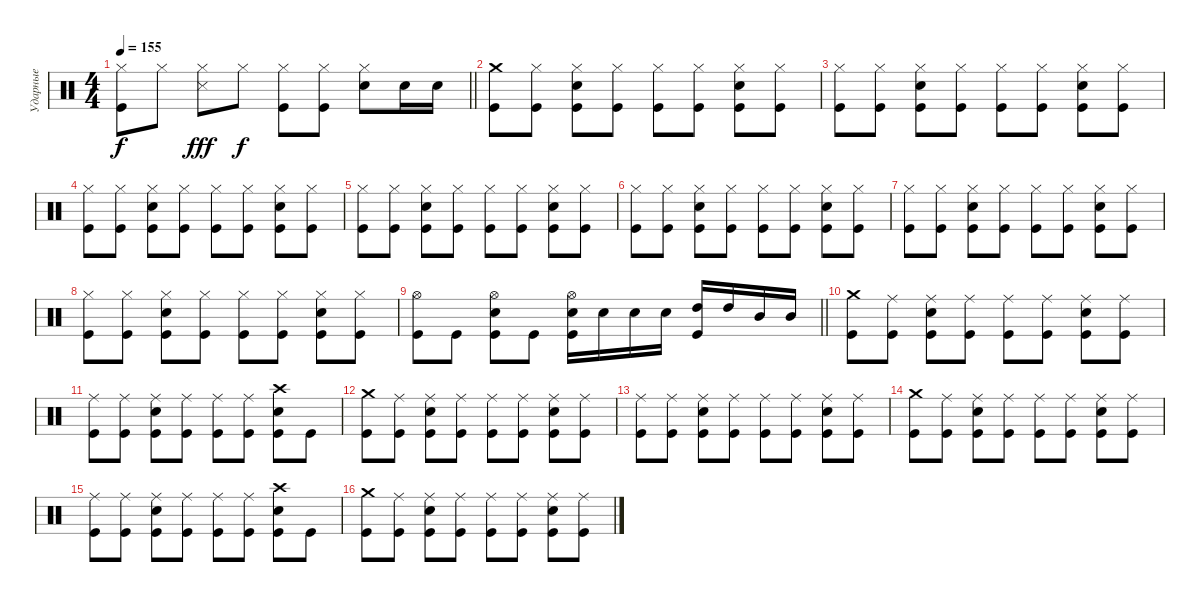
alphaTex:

\track ("Ударные" "Ударные") {instrument percussion}
\staff {score}
\articulation defaults
\ts (4 4)
\tempo 155
\clef neutral
\barLineRight lightlight
\ks c
("Hi-Hat (closed)" "Kick (hit)").8{dy f} "Hi-Hat (closed)".8 ("Hi-Hat (closed)" "Snare (side stick) 3").8{dy fff} "Hi-Hat (closed)".8{dy f} ("Hi-Hat (closed)" "Kick (hit)").8 ("Hi-Hat (closed)" "Kick (hit)").8 ("Hi-Hat (closed)" "Electric Snare (hit)").8 "Electric Snare (hit)".16 "Electric Snare (hit)".16 |
\section ("" " ")
("Crash medium (hit)" "Kick (hit)").8 ("Hi-Hat (closed)" "Kick (hit)").8 ("Hi-Hat (closed)" "Electric Snare (hit)" "Kick (hit)").8 ("Hi-Hat (closed)" "Kick (hit)").8 ("Hi-Hat (closed)" "Kick (hit)").8 ("Hi-Hat (closed)" "Kick (hit)").8 ("Hi-Hat (closed)" "Electric Snare (hit)" "Kick (hit)").8 ("Hi-Hat (closed)" "Kick (hit)").8 |
("Hi-Hat (closed)" "Kick (hit)").8 ("Hi-Hat (closed)" "Kick (hit)").8 ("Hi-Hat (closed)" "Electric Snare (hit)" "Kick (hit)").8 ("Hi-Hat (closed)" "Kick (hit)").8 ("Hi-Hat (closed)" "Kick (hit)").8 ("Hi-Hat (closed)" "Kick (hit)").8 ("Hi-Hat (closed)" "Electric Snare (hit)" "Kick (hit)").8 ("Hi-Hat (closed)" "Kick (hit)").8 |
("Hi-Hat (closed)" "Kick (hit)").8 ("Hi-Hat (closed)" "Kick (hit)").8 ("Hi-Hat (closed)" "Electric Snare (hit)" "Kick (hit)").8 ("Hi-Hat (closed)" "Kick (hit)").8 ("Hi-Hat (closed)" "Kick (hit)").8 ("Hi-Hat (closed)" "Kick (hit)").8 ("Hi-Hat (closed)" "Electric Snare (hit)" "Kick (hit)").8 ("Hi-Hat (closed)" "Kick (hit)").8 |
("Hi-Hat (closed)" "Kick (hit)").8 ("Hi-Hat (closed)" "Kick (hit)").8 ("Hi-Hat (closed)" "Electric Snare (hit)" "Kick (hit)").8 ("Hi-Hat (closed)" "Kick (hit)").8 ("Hi-Hat (closed)" "Kick (hit)").8 ("Hi-Hat (closed)" "Kick (hit)").8 ("Hi-Hat (closed)" "Electric Snare (hit)" "Kick (hit)").8 ("Hi-Hat (closed)" "Kick (hit)").8 |
("Hi-Hat (closed)" "Kick (hit)").8 ("Hi-Hat (closed)" "Kick (hit)").8 ("Hi-Hat (closed)" "Electric Snare (hit)" "Kick (hit)").8 ("Hi-Hat (closed)" "Kick (hit)").8 ("Hi-Hat (closed)" "Kick (hit)").8 ("Hi-Hat (closed)" "Kick (hit)").8 ("Hi-Hat (closed)" "Electric Snare (hit)" "Kick (hit)").8 ("Hi-Hat (closed)" "Kick (hit)").8 |
("Hi-Hat (closed)" "Kick (hit)").8 ("Hi-Hat (closed)" "Kick (hit)").8 ("Hi-Hat (closed)" "Electric Snare (hit)" "Kick (hit)").8 ("Hi-Hat (closed)" "Kick (hit)").8 ("Hi-Hat (closed)" "Kick (hit)").8 ("Hi-Hat (closed)" "Kick (hit)").8 ("Hi-Hat (closed)" "Electric Snare (hit)" "Kick (hit)").8 ("Hi-Hat (closed)" "Kick (hit)").8 |
("Hi-Hat (closed)" "Kick (hit)").8 ("Hi-Hat (closed)" "Kick (hit)").8 ("Hi-Hat (closed)" "Electric Snare (hit)" "Kick (hit)").8 ("Hi-Hat (closed)" "Kick (hit)").8 ("Hi-Hat (closed)" "Kick (hit)").8 ("Hi-Hat (closed)" "Kick (hit)").8 ("Hi-Hat (closed)" "Electric Snare (hit)" "Kick (hit)").8 ("Hi-Hat (closed)" "Kick (hit)").8 |
\barLineRight lightlight
("Hi-Hat (open)" "Kick (hit)").8 "Kick (hit)".8 ("Hi-Hat (open)" "Electric Snare (hit)" "Kick (hit)").8 "Kick (hit)".8 ("Hi-Hat (open)" "Electric Snare (hit)" "Kick (hit)").16 "Electric Snare (hit)".16 "Electric Snare (hit)".16 "Electric Snare (hit)".16 ("High Tom (hit)" "Kick (hit)").16 "High Tom (hit)".16 "Mid Tom (hit)".16 "Mid Tom (hit)".16 |
\section ("" " ")
("Crash medium (hit)" "Kick (hit)").8 ("Ride (middle)" "Kick (hit)").8 ("Ride (middle)" "Electric Snare (hit)" "Kick (hit)").8 ("Ride (middle)" "Kick (hit)").8 ("Ride (middle)" "Kick (hit)").8 ("Ride (middle)" "Kick (hit)").8 ("Ride (middle)" "Electric Snare (hit)" "Kick (hit)").8 ("Ride (middle)" "Kick (hit)").8 |
("Ride (middle)" "Kick (hit)").8 ("Ride (middle)" "Kick (hit)").8 ("Ride (middle)" "Electric Snare (hit)" "Kick (hit)").8 ("Ride (middle)" "Kick (hit)").8 ("Ride (middle)" "Kick (hit)").8 ("Ride (middle)" "Kick (hit)").8 ("Crash high (hit)" "Electric Snare (hit)" "Kick (hit)").8 "Kick (hit)".8 |
("Crash medium (hit)" "Kick (hit)").8 ("Ride (middle)" "Kick (hit)").8 ("Ride (middle)" "Electric Snare (hit)" "Kick (hit)").8 ("Ride (middle)" "Kick (hit)").8 ("Ride (middle)" "Kick (hit)").8 ("Ride (middle)" "Kick (hit)").8 ("Ride (middle)" "Electric Snare (hit)" "Kick (hit)").8 ("Ride (middle)" "Kick (hit)").8 |
("Ride (middle)" "Kick (hit)").8 ("Ride (middle)" "Kick (hit)").8 ("Ride (middle)" "Electric Snare (hit)" "Kick (hit)").8 ("Ride (middle)" "Kick (hit)").8 ("Ride (middle)" "Kick (hit)").8 ("Ride (middle)" "Kick (hit)").8 ("Ride (middle)" "Electric Snare (hit)" "Kick (hit)").8 ("Ride (middle)" "Kick (hit)").8 |
("Crash medium (hit)" "Kick (hit)").8 ("Ride (middle)" "Kick (hit)").8 ("Ride (middle)" "Electric Snare (hit)" "Kick (hit)").8 ("Ride (middle)" "Kick (hit)").8 ("Ride (middle)" "Kick (hit)").8 ("Ride (middle)" "Kick (hit)").8 ("Ride (middle)" "Electric Snare (hit)" "Kick (hit)").8 ("Ride (middle)" "Kick (hit)").8 |
("Ride (middle)" "Kick (hit)").8 ("Ride (middle)" "Kick (hit)").8 ("Ride (middle)" "Electric Snare (hit)" "Kick (hit)").8 ("Ride (middle)" "Kick (hit)").8 ("Ride (middle)" "Kick (hit)").8 ("Ride (middle)" "Kick (hit)").8 ("Crash high (hit)" "Electric Snare (hit)" "Kick (hit)").8 "Kick (hit)".8 |
("Crash medium (hit)" "Kick (hit)").8 ("Ride (middle)" "Kick (hit)").8 ("Ride (middle)" "Electric Snare (hit)" "Kick (hit)").8 ("Ride (middle)" "Kick (hit)").8 ("Ride (middle)" "Kick (hit)").8 ("Ride (middle)" "Kick (hit)").8 ("Ride (middle)" "Electric Snare (hit)" "Kick (hit)").8 ("Ride (middle)" "Kick (hit)").8
